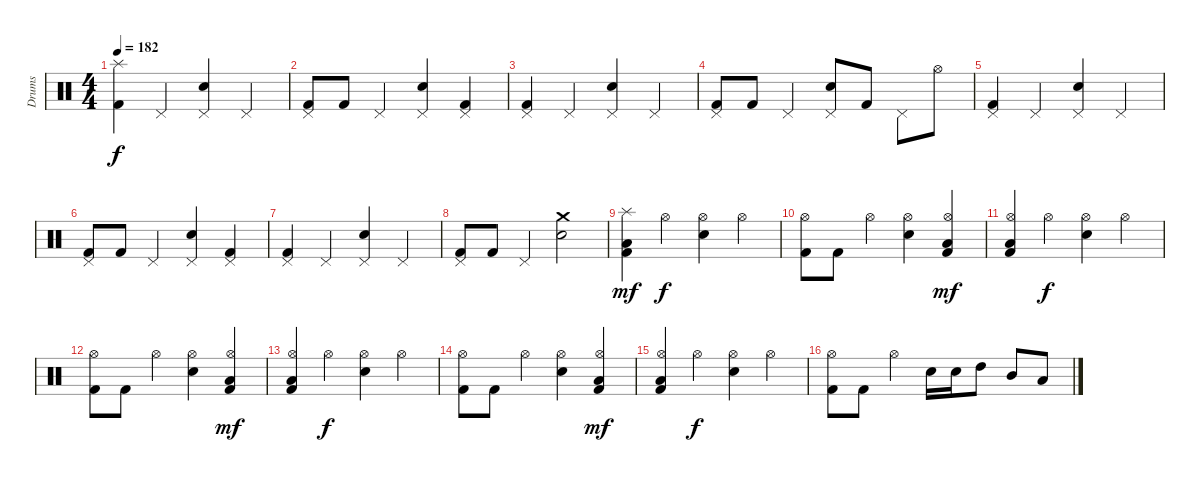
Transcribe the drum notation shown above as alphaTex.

\track ("Drums" "Drums") {instrument percussion}
\staff {score}
\articulation defaults
\ts (4 4)
\tempo 182
\clef neutral
\ks c
("Splash (hit)" "Kick (hit) 2").4{dy f} "Pedal Hi-Hat (hit)".4 ("Pedal Hi-Hat (hit)" "Snare (hit) 2").4 "Pedal Hi-Hat (hit)".4 |
("Pedal Hi-Hat (hit)" "Kick (hit) 2").8 "Kick (hit) 2".8 "Pedal Hi-Hat (hit)".4 ("Pedal Hi-Hat (hit)" "Snare (hit) 2").4 ("Pedal Hi-Hat (hit)" "Kick (hit) 2").4 |
("Pedal Hi-Hat (hit)" "Kick (hit) 2").4 "Pedal Hi-Hat (hit)".4 ("Pedal Hi-Hat (hit)" "Snare (hit) 2").4 "Pedal Hi-Hat (hit)".4 |
("Pedal Hi-Hat (hit)" "Kick (hit) 2").8 "Kick (hit) 2".8 "Pedal Hi-Hat (hit)".4 ("Pedal Hi-Hat (hit)" "Snare (hit) 2").8 "Kick (hit) 2".8 "Pedal Hi-Hat (hit)".8 "Hi-Hat (open)".8 |
("Pedal Hi-Hat (hit)" "Kick (hit) 2").4 "Pedal Hi-Hat (hit)".4 ("Pedal Hi-Hat (hit)" "Snare (hit) 2").4 "Pedal Hi-Hat (hit)".4 |
("Pedal Hi-Hat (hit)" "Kick (hit) 2").8 "Kick (hit) 2".8 "Pedal Hi-Hat (hit)".4 ("Pedal Hi-Hat (hit)" "Snare (hit) 2").4 ("Pedal Hi-Hat (hit)" "Kick (hit) 2").4 |
("Pedal Hi-Hat (hit)" "Kick (hit) 2").4 "Pedal Hi-Hat (hit)".4 ("Pedal Hi-Hat (hit)" "Snare (hit) 2").4 "Pedal Hi-Hat (hit)".4 |
("Pedal Hi-Hat (hit)" "Kick (hit) 2").8 "Kick (hit) 2".8 "Pedal Hi-Hat (hit)".4 ("Crash medium (hit)" "Snare (hit) 2").2 |
("Splash (hit)" "Low Floor Tom (hit)" "Kick (hit) 2").4{dy mf} "Hi-Hat (open)".4{dy f} ("Hi-Hat (open)" "Snare (hit) 2").4 "Hi-Hat (open)".4 |
("Hi-Hat (open)" "Kick (hit) 2").8 "Kick (hit) 2".8 "Hi-Hat (open)".4 ("Hi-Hat (open)" "Snare (hit) 2").4 ("Hi-Hat (open)" "Low Floor Tom (hit)" "Kick (hit) 2").4{dy mf} |
("Hi-Hat (open)" "Low Floor Tom (hit)" "Kick (hit) 2").4 "Hi-Hat (open)".4{dy f} ("Hi-Hat (open)" "Snare (hit) 2").4 "Hi-Hat (open)".4 |
("Hi-Hat (open)" "Kick (hit) 2").8 "Kick (hit) 2".8 "Hi-Hat (open)".4 ("Hi-Hat (open)" "Snare (hit) 2").4 ("Hi-Hat (open)" "Low Floor Tom (hit)" "Kick (hit) 2").4{dy mf} |
("Hi-Hat (open)" "Low Floor Tom (hit)" "Kick (hit) 2").4 "Hi-Hat (open)".4{dy f} ("Hi-Hat (open)" "Snare (hit) 2").4 "Hi-Hat (open)".4 |
("Hi-Hat (open)" "Kick (hit) 2").8 "Kick (hit) 2".8 "Hi-Hat (open)".4 ("Hi-Hat (open)" "Snare (hit) 2").4 ("Hi-Hat (open)" "Low Floor Tom (hit)" "Kick (hit) 2").4{dy mf} |
("Hi-Hat (open)" "Low Floor Tom (hit)" "Kick (hit) 2").4 "Hi-Hat (open)".4{dy f} ("Hi-Hat (open)" "Snare (hit) 2").4 "Hi-Hat (open)".4 |
("Hi-Hat (open)" "Kick (hit) 2").8 "Kick (hit) 2".8 "Hi-Hat (open)".4 "Snare (hit) 2".16 "Snare (hit) 2".16 "High Tom (hit)".8 "Mid Tom (hit)".8 "Low Tom (hit)".8
